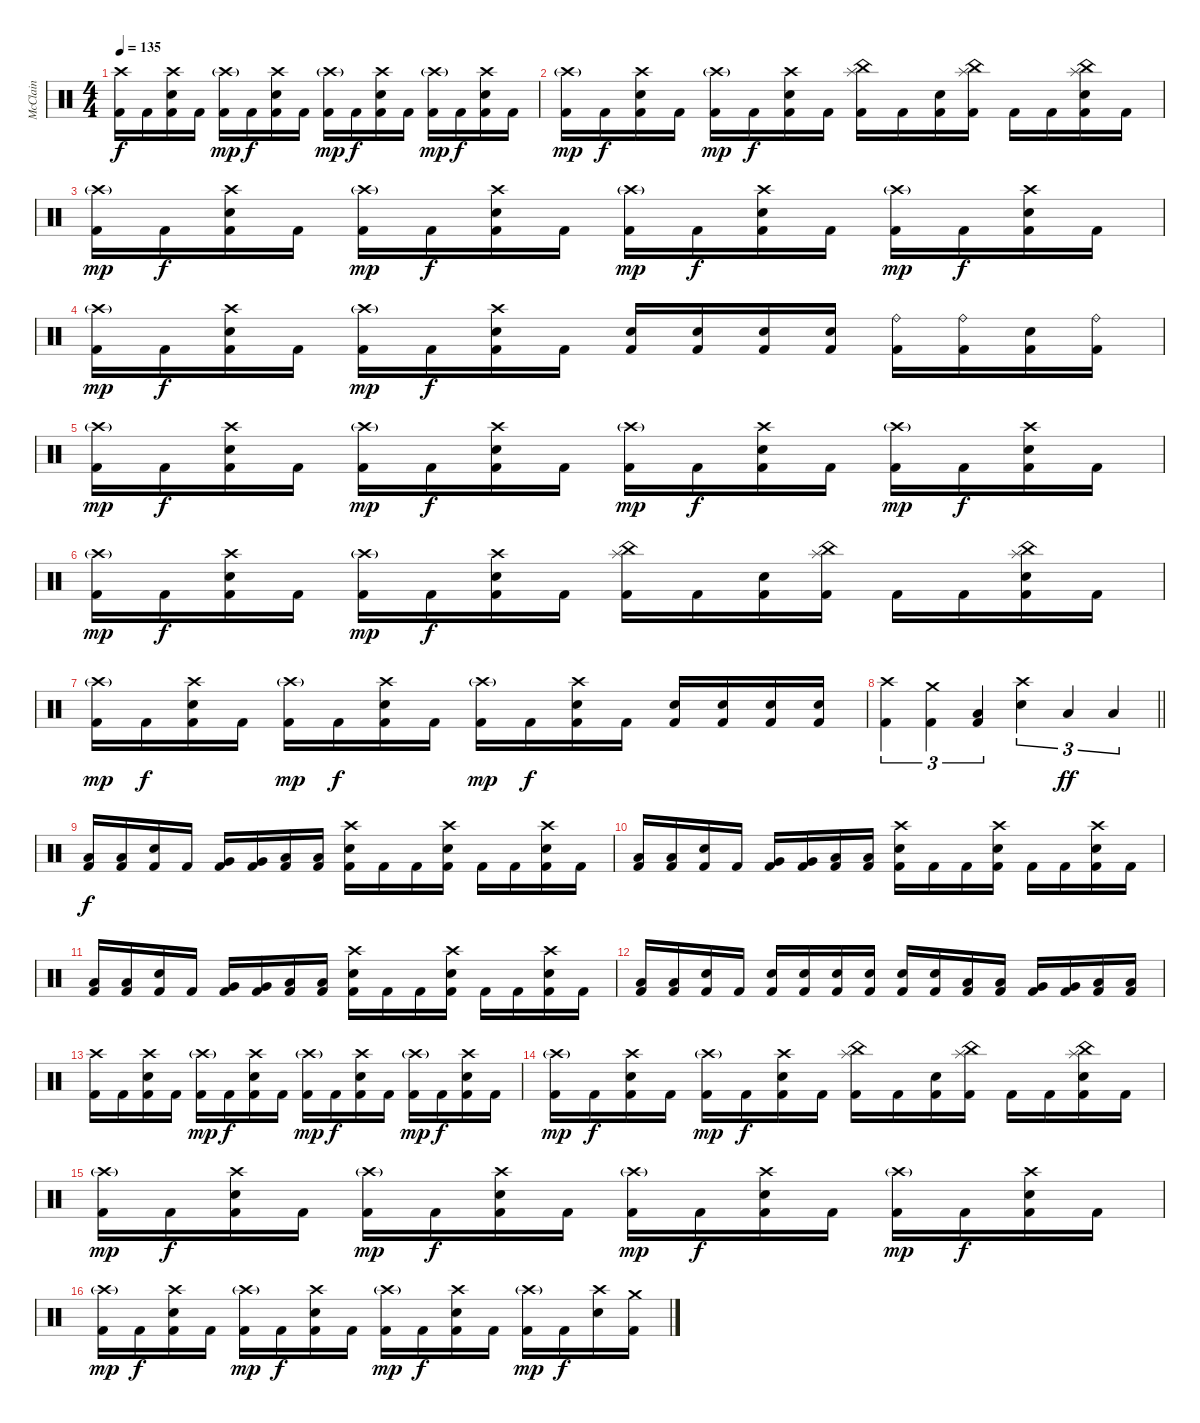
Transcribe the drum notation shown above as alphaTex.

\track ("McClain" "McClain") {instrument percussion}
\staff {score}
\articulation defaults
\ts (4 4)
\tempo 135
\clef neutral
\ks c
("Crash high (hit)" "Kick (hit) 2").16{dy f} "Kick (hit) 2".16 ("Crash high (hit)" "Electric Snare (hit)" "Kick (hit) 2").16 "Kick (hit) 2".16 ("Crash high (hit)"{g} "Kick (hit) 2").16{dy mp} "Kick (hit) 2".16{dy f} ("Crash high (hit)" "Electric Snare (hit)" "Kick (hit) 2").16 "Kick (hit) 2".16 ("Crash high (hit)"{g} "Kick (hit) 2").16{dy mp} "Kick (hit) 2".16{dy f} ("Crash high (hit)" "Electric Snare (hit)" "Kick (hit) 2").16 "Kick (hit) 2".16 ("Crash high (hit)"{g} "Kick (hit) 2").16{dy mp} "Kick (hit) 2".16{dy f} ("Crash high (hit)" "Electric Snare (hit)" "Kick (hit) 2").16 "Kick (hit) 2".16 |
("Crash high (hit)"{g} "Kick (hit) 2").16{dy mp} "Kick (hit) 2".16{dy f} ("Crash high (hit)" "Electric Snare (hit)" "Kick (hit) 2").16 "Kick (hit) 2".16 ("Crash high (hit)"{g} "Kick (hit) 2").16{dy mp} "Kick (hit) 2".16{dy f} ("Crash high (hit)" "Electric Snare (hit)" "Kick (hit) 2").16 "Kick (hit) 2".16 ("China (hit)" "Splash (hit)" "Kick (hit) 2").16 "Kick (hit) 2".16 ("Electric Snare (hit)" "Kick (hit) 2").16 ("China (hit)" "Splash (hit)" "Kick (hit) 2").16 "Kick (hit) 2".16 "Kick (hit) 2".16 ("China (hit)" "Splash (hit)" "Electric Snare (hit)" "Kick (hit) 2").16 "Kick (hit) 2".16 |
("Crash high (hit)"{g} "Kick (hit) 2").16{dy mp} "Kick (hit) 2".16{dy f} ("Crash high (hit)" "Electric Snare (hit)" "Kick (hit) 2").16 "Kick (hit) 2".16 ("Crash high (hit)"{g} "Kick (hit) 2").16{dy mp} "Kick (hit) 2".16{dy f} ("Crash high (hit)" "Electric Snare (hit)" "Kick (hit) 2").16 "Kick (hit) 2".16 ("Crash high (hit)"{g} "Kick (hit) 2").16{dy mp} "Kick (hit) 2".16{dy f} ("Crash high (hit)" "Electric Snare (hit)" "Kick (hit) 2").16 "Kick (hit) 2".16 ("Crash high (hit)"{g} "Kick (hit) 2").16{dy mp} "Kick (hit) 2".16{dy f} ("Crash high (hit)" "Electric Snare (hit)" "Kick (hit) 2").16 "Kick (hit) 2".16 |
("Crash high (hit)"{g} "Kick (hit) 2").16{dy mp} "Kick (hit) 2".16{dy f} ("Crash high (hit)" "Electric Snare (hit)" "Kick (hit) 2").16 "Kick (hit) 2".16 ("Crash high (hit)"{g} "Kick (hit) 2").16{dy mp} "Kick (hit) 2".16{dy f} ("Crash high (hit)" "Electric Snare (hit)" "Kick (hit) 2").16 "Kick (hit) 2".16 ("Electric Snare (hit)" "Kick (hit) 2").16 ("Electric Snare (hit)" "Kick (hit) 2").16 ("Electric Snare (hit)" "Kick (hit) 2").16 ("Electric Snare (hit)" "Kick (hit) 2").16 ("Ride (bell)" "Kick (hit) 2").16 ("Ride (bell)" "Kick (hit) 2").16 ("Electric Snare (hit)" "Kick (hit) 2").16 ("Ride (bell)" "Kick (hit) 2").16 |
("Crash high (hit)"{g} "Kick (hit) 2").16{dy mp} "Kick (hit) 2".16{dy f} ("Crash high (hit)" "Electric Snare (hit)" "Kick (hit) 2").16 "Kick (hit) 2".16 ("Crash high (hit)"{g} "Kick (hit) 2").16{dy mp} "Kick (hit) 2".16{dy f} ("Crash high (hit)" "Electric Snare (hit)" "Kick (hit) 2").16 "Kick (hit) 2".16 ("Crash high (hit)"{g} "Kick (hit) 2").16{dy mp} "Kick (hit) 2".16{dy f} ("Crash high (hit)" "Electric Snare (hit)" "Kick (hit) 2").16 "Kick (hit) 2".16 ("Crash high (hit)"{g} "Kick (hit) 2").16{dy mp} "Kick (hit) 2".16{dy f} ("Crash high (hit)" "Electric Snare (hit)" "Kick (hit) 2").16 "Kick (hit) 2".16 |
("Crash high (hit)"{g} "Kick (hit) 2").16{dy mp} "Kick (hit) 2".16{dy f} ("Crash high (hit)" "Electric Snare (hit)" "Kick (hit) 2").16 "Kick (hit) 2".16 ("Crash high (hit)"{g} "Kick (hit) 2").16{dy mp} "Kick (hit) 2".16{dy f} ("Crash high (hit)" "Electric Snare (hit)" "Kick (hit) 2").16 "Kick (hit) 2".16 ("China (hit)" "Splash (hit)" "Kick (hit) 2").16 "Kick (hit) 2".16 ("Electric Snare (hit)" "Kick (hit) 2").16 ("China (hit)" "Splash (hit)" "Kick (hit) 2").16 "Kick (hit) 2".16 "Kick (hit) 2".16 ("China (hit)" "Splash (hit)" "Electric Snare (hit)" "Kick (hit) 2").16 "Kick (hit) 2".16 |
("Crash high (hit)"{g} "Kick (hit) 2").16{dy mp} "Kick (hit) 2".16{dy f} ("Crash high (hit)" "Electric Snare (hit)" "Kick (hit) 2").16 "Kick (hit) 2".16 ("Crash high (hit)"{g} "Kick (hit) 2").16{dy mp} "Kick (hit) 2".16{dy f} ("Crash high (hit)" "Electric Snare (hit)" "Kick (hit) 2").16 "Kick (hit) 2".16 ("Crash high (hit)"{g} "Kick (hit) 2").16{dy mp} "Kick (hit) 2".16{dy f} ("Crash high (hit)" "Electric Snare (hit)" "Kick (hit) 2").16 "Kick (hit) 2".16 ("Electric Snare (hit)" "Kick (hit) 2").16 ("Electric Snare (hit)" "Kick (hit) 2").16 ("Electric Snare (hit)" "Kick (hit) 2").16 ("Electric Snare (hit)" "Kick (hit) 2").16 |
\barLineRight lightlight
("Crash high (hit)" "Kick (hit) 2").4{tu (3 2)} ("Crash medium (hit)" "Kick (hit) 2").4{tu (3 2)} ("Low Floor Tom (hit)" "Kick (hit) 2").4{tu (3 2)} ("Crash high (hit)" "Electric Snare (hit)").4{tu (3 2)} "Low Tom (hit)".4{tu (3 2) dy ff} "Low Floor Tom (hit)".4{tu (3 2)} |
("Low Tom (hit)" "Kick (hit) 2").16{dy f} ("Low Tom (hit)" "Kick (hit) 2").16 ("Electric Snare (hit)" "Kick (hit) 2").16 "Kick (hit) 2".16 ("Very Low Tom (hit)" "Kick (hit) 2").16 ("Very Low Tom (hit)" "Kick (hit) 2").16 ("Low Floor Tom (hit)" "Kick (hit) 2").16 ("Low Floor Tom (hit)" "Kick (hit) 2").16 ("Crash high (hit)" "Electric Snare (hit)" "Kick (hit) 2").16 "Kick (hit) 2".16 "Kick (hit) 2".16 ("Crash high (hit)" "Electric Snare (hit)" "Kick (hit) 2").16 "Kick (hit) 2".16 "Kick (hit) 2".16 ("Crash high (hit)" "Electric Snare (hit)" "Kick (hit) 2").16 "Kick (hit) 2".16 |
("Low Tom (hit)" "Kick (hit) 2").16 ("Low Tom (hit)" "Kick (hit) 2").16 ("Electric Snare (hit)" "Kick (hit) 2").16 "Kick (hit) 2".16 ("Very Low Tom (hit)" "Kick (hit) 2").16 ("Very Low Tom (hit)" "Kick (hit) 2").16 ("Low Floor Tom (hit)" "Kick (hit) 2").16 ("Low Floor Tom (hit)" "Kick (hit) 2").16 ("Crash high (hit)" "Electric Snare (hit)" "Kick (hit) 2").16 "Kick (hit) 2".16 "Kick (hit) 2".16 ("Crash high (hit)" "Electric Snare (hit)" "Kick (hit) 2").16 "Kick (hit) 2".16 "Kick (hit) 2".16 ("Crash high (hit)" "Electric Snare (hit)" "Kick (hit) 2").16 "Kick (hit) 2".16 |
("Low Tom (hit)" "Kick (hit) 2").16 ("Low Tom (hit)" "Kick (hit) 2").16 ("Electric Snare (hit)" "Kick (hit) 2").16 "Kick (hit) 2".16 ("Very Low Tom (hit)" "Kick (hit) 2").16 ("Very Low Tom (hit)" "Kick (hit) 2").16 ("Low Floor Tom (hit)" "Kick (hit) 2").16 ("Low Floor Tom (hit)" "Kick (hit) 2").16 ("Crash high (hit)" "Electric Snare (hit)" "Kick (hit) 2").16 "Kick (hit) 2".16 "Kick (hit) 2".16 ("Crash high (hit)" "Electric Snare (hit)" "Kick (hit) 2").16 "Kick (hit) 2".16 "Kick (hit) 2".16 ("Crash high (hit)" "Electric Snare (hit)" "Kick (hit) 2").16 "Kick (hit) 2".16 |
("Low Tom (hit)" "Kick (hit) 2").16 ("Low Tom (hit)" "Kick (hit) 2").16 ("Electric Snare (hit)" "Kick (hit) 2").16 "Kick (hit) 2".16 ("Electric Snare (hit)" "Kick (hit) 2").16 ("Electric Snare (hit)" "Kick (hit) 2").16 ("Electric Snare (hit)" "Kick (hit) 2").16 ("Electric Snare (hit)" "Kick (hit) 2").16 ("Electric Snare (hit)" "Kick (hit) 2").16 ("Electric Snare (hit)" "Kick (hit) 2").16 ("Low Tom (hit)" "Kick (hit) 2").16 ("Low Tom (hit)" "Kick (hit) 2").16 ("Very Low Tom (hit)" "Kick (hit) 2").16 ("Very Low Tom (hit)" "Kick (hit) 2").16 ("Low Floor Tom (hit)" "Kick (hit) 2").16 ("Low Floor Tom (hit)" "Kick (hit) 2").16 |
("Crash high (hit)" "Kick (hit) 2").16 "Kick (hit) 2".16 ("Crash high (hit)" "Electric Snare (hit)" "Kick (hit) 2").16 "Kick (hit) 2".16 ("Crash high (hit)"{g} "Kick (hit) 2").16{dy mp} "Kick (hit) 2".16{dy f} ("Crash high (hit)" "Electric Snare (hit)" "Kick (hit) 2").16 "Kick (hit) 2".16 ("Crash high (hit)"{g} "Kick (hit) 2").16{dy mp} "Kick (hit) 2".16{dy f} ("Crash high (hit)" "Electric Snare (hit)" "Kick (hit) 2").16 "Kick (hit) 2".16 ("Crash high (hit)"{g} "Kick (hit) 2").16{dy mp} "Kick (hit) 2".16{dy f} ("Crash high (hit)" "Electric Snare (hit)" "Kick (hit) 2").16 "Kick (hit) 2".16 |
("Crash high (hit)"{g} "Kick (hit) 2").16{dy mp} "Kick (hit) 2".16{dy f} ("Crash high (hit)" "Electric Snare (hit)" "Kick (hit) 2").16 "Kick (hit) 2".16 ("Crash high (hit)"{g} "Kick (hit) 2").16{dy mp} "Kick (hit) 2".16{dy f} ("Crash high (hit)" "Electric Snare (hit)" "Kick (hit) 2").16 "Kick (hit) 2".16 ("China (hit)" "Splash (hit)" "Kick (hit) 2").16 "Kick (hit) 2".16 ("Electric Snare (hit)" "Kick (hit) 2").16 ("China (hit)" "Splash (hit)" "Kick (hit) 2").16 "Kick (hit) 2".16 "Kick (hit) 2".16 ("China (hit)" "Splash (hit)" "Electric Snare (hit)" "Kick (hit) 2").16 "Kick (hit) 2".16 |
("Crash high (hit)"{g} "Kick (hit) 2").16{dy mp} "Kick (hit) 2".16{dy f} ("Crash high (hit)" "Electric Snare (hit)" "Kick (hit) 2").16 "Kick (hit) 2".16 ("Crash high (hit)"{g} "Kick (hit) 2").16{dy mp} "Kick (hit) 2".16{dy f} ("Crash high (hit)" "Electric Snare (hit)" "Kick (hit) 2").16 "Kick (hit) 2".16 ("Crash high (hit)"{g} "Kick (hit) 2").16{dy mp} "Kick (hit) 2".16{dy f} ("Crash high (hit)" "Electric Snare (hit)" "Kick (hit) 2").16 "Kick (hit) 2".16 ("Crash high (hit)"{g} "Kick (hit) 2").16{dy mp} "Kick (hit) 2".16{dy f} ("Crash high (hit)" "Electric Snare (hit)" "Kick (hit) 2").16 "Kick (hit) 2".16 |
("Crash high (hit)"{g} "Kick (hit) 2").16{dy mp} "Kick (hit) 2".16{dy f} ("Crash high (hit)" "Electric Snare (hit)" "Kick (hit) 2").16 "Kick (hit) 2".16 ("Crash high (hit)"{g} "Kick (hit) 2").16{dy mp} "Kick (hit) 2".16{dy f} ("Crash high (hit)" "Electric Snare (hit)" "Kick (hit) 2").16 "Kick (hit) 2".16 ("Crash high (hit)"{g} "Kick (hit) 2").16{dy mp} "Kick (hit) 2".16{dy f} ("Crash high (hit)" "Electric Snare (hit)" "Kick (hit) 2").16 "Kick (hit) 2".16 ("Crash high (hit)"{g} "Kick (hit) 2").16{dy mp} "Kick (hit) 2".16{dy f} ("Crash high (hit)" "Electric Snare (hit)").16 ("Crash medium (hit)" "Kick (hit) 2").16
